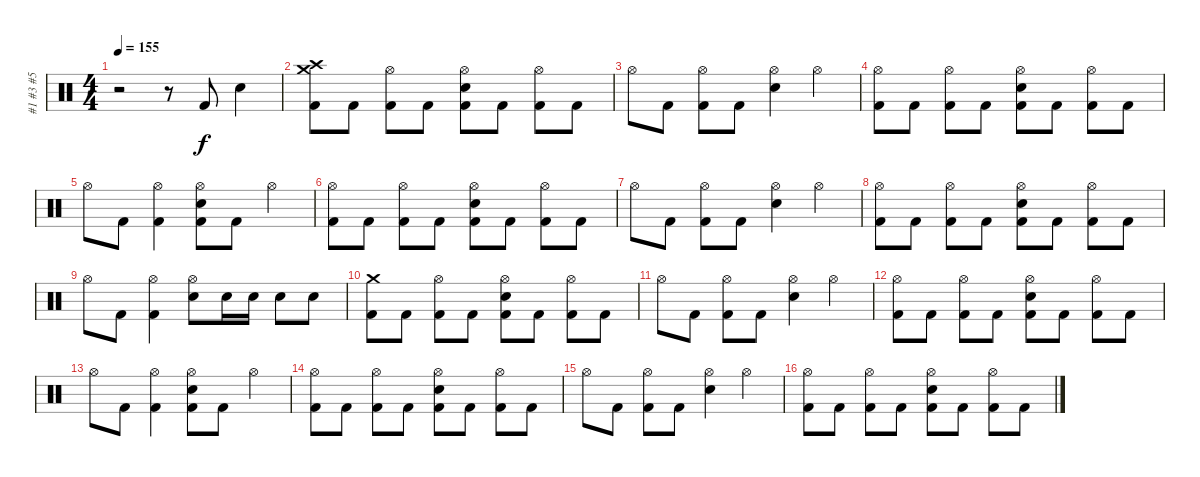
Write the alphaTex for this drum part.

\track ("#1 #3 #5" "#1 #3 #5") {instrument percussion}
\staff {score}
\articulation defaults
\ts (4 4)
\tempo 155
\clef neutral
\ks c
r.2{dy f} r.8 "Kick (hit) 2".8 "Electric Snare (hit)".4 |
\section ("" " ")
("Crash medium (hit)" "Crash high (hit)" "Kick (hit) 2").8 "Kick (hit) 2".8 ("Hi-Hat (open)" "Kick (hit) 2").8 "Kick (hit) 2".8 ("Hi-Hat (open)" "Electric Snare (hit)" "Kick (hit) 2").8 "Kick (hit) 2".8 ("Hi-Hat (open)" "Kick (hit) 2").8 "Kick (hit) 2".8 |
"Hi-Hat (open)".8 "Kick (hit) 2".8 ("Hi-Hat (open)" "Kick (hit) 2").8 "Kick (hit) 2".8 ("Hi-Hat (open)" "Electric Snare (hit)").4 "Hi-Hat (open)".4 |
("Hi-Hat (open)" "Kick (hit) 2").8 "Kick (hit) 2".8 ("Hi-Hat (open)" "Kick (hit) 2").8 "Kick (hit) 2".8 ("Hi-Hat (open)" "Electric Snare (hit)" "Kick (hit) 2").8 "Kick (hit) 2".8 ("Hi-Hat (open)" "Kick (hit) 2").8 "Kick (hit) 2".8 |
"Hi-Hat (open)".8 "Kick (hit) 2".8 ("Hi-Hat (open)" "Kick (hit) 2").4 ("Hi-Hat (open)" "Electric Snare (hit)" "Kick (hit) 2").8 "Kick (hit) 2".8 "Hi-Hat (open)".4 |
("Hi-Hat (open)" "Kick (hit) 2").8 "Kick (hit) 2".8 ("Hi-Hat (open)" "Kick (hit) 2").8 "Kick (hit) 2".8 ("Hi-Hat (open)" "Electric Snare (hit)" "Kick (hit) 2").8 "Kick (hit) 2".8 ("Hi-Hat (open)" "Kick (hit) 2").8 "Kick (hit) 2".8 |
"Hi-Hat (open)".8 "Kick (hit) 2".8 ("Hi-Hat (open)" "Kick (hit) 2").8 "Kick (hit) 2".8 ("Hi-Hat (open)" "Electric Snare (hit)").4 "Hi-Hat (open)".4 |
("Hi-Hat (open)" "Kick (hit) 2").8 "Kick (hit) 2".8 ("Hi-Hat (open)" "Kick (hit) 2").8 "Kick (hit) 2".8 ("Hi-Hat (open)" "Electric Snare (hit)" "Kick (hit) 2").8 "Kick (hit) 2".8 ("Hi-Hat (open)" "Kick (hit) 2").8 "Kick (hit) 2".8 |
"Hi-Hat (open)".8 "Kick (hit) 2".8 ("Hi-Hat (open)" "Kick (hit) 2").4 ("Hi-Hat (open)" "Electric Snare (hit)").8 "Electric Snare (hit)".16 "Electric Snare (hit)".16 "Electric Snare (hit)".8 "Electric Snare (hit)".8 |
("Crash medium (hit)" "Kick (hit) 2").8 "Kick (hit) 2".8 ("Hi-Hat (open)" "Kick (hit) 2").8 "Kick (hit) 2".8 ("Hi-Hat (open)" "Electric Snare (hit)" "Kick (hit) 2").8 "Kick (hit) 2".8 ("Hi-Hat (open)" "Kick (hit) 2").8 "Kick (hit) 2".8 |
"Hi-Hat (open)".8 "Kick (hit) 2".8 ("Hi-Hat (open)" "Kick (hit) 2").8 "Kick (hit) 2".8 ("Hi-Hat (open)" "Electric Snare (hit)").4 "Hi-Hat (open)".4 |
("Hi-Hat (open)" "Kick (hit) 2").8 "Kick (hit) 2".8 ("Hi-Hat (open)" "Kick (hit) 2").8 "Kick (hit) 2".8 ("Hi-Hat (open)" "Electric Snare (hit)" "Kick (hit) 2").8 "Kick (hit) 2".8 ("Hi-Hat (open)" "Kick (hit) 2").8 "Kick (hit) 2".8 |
"Hi-Hat (open)".8 "Kick (hit) 2".8 ("Hi-Hat (open)" "Kick (hit) 2").4 ("Hi-Hat (open)" "Electric Snare (hit)" "Kick (hit) 2").8 "Kick (hit) 2".8 "Hi-Hat (open)".4 |
("Hi-Hat (open)" "Kick (hit) 2").8 "Kick (hit) 2".8 ("Hi-Hat (open)" "Kick (hit) 2").8 "Kick (hit) 2".8 ("Hi-Hat (open)" "Electric Snare (hit)" "Kick (hit) 2").8 "Kick (hit) 2".8 ("Hi-Hat (open)" "Kick (hit) 2").8 "Kick (hit) 2".8 |
"Hi-Hat (open)".8 "Kick (hit) 2".8 ("Hi-Hat (open)" "Kick (hit) 2").8 "Kick (hit) 2".8 ("Hi-Hat (open)" "Electric Snare (hit)").4 "Hi-Hat (open)".4 |
("Hi-Hat (open)" "Kick (hit) 2").8 "Kick (hit) 2".8 ("Hi-Hat (open)" "Kick (hit) 2").8 "Kick (hit) 2".8 ("Hi-Hat (open)" "Electric Snare (hit)" "Kick (hit) 2").8 "Kick (hit) 2".8 ("Hi-Hat (open)" "Kick (hit) 2").8 "Kick (hit) 2".8
